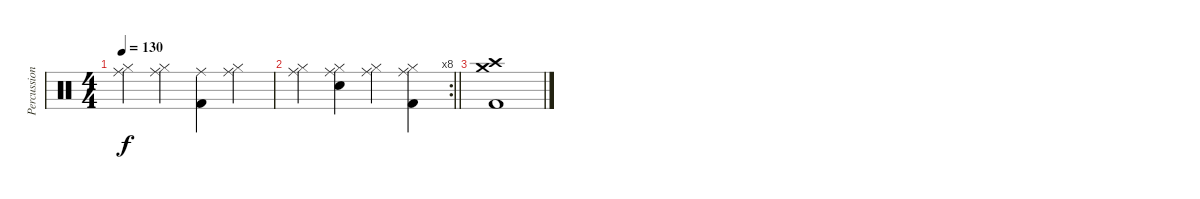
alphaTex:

\track ("Percussion" "Percussion") {instrument percussion}
\staff {score}
\articulation defaults
\ts (4 4)
\tempo 130
\clef neutral
\ks c
("Ride (middle)" "Hi-Hat (closed)").4{dy f} ("Ride (middle)" "Hi-Hat (closed)").4 ("Ride (middle)" "Kick (hit) 2").4 ("Ride (middle)" "Hi-Hat (closed)").4 |
\rc 8
\barLineRight lightlight
("Ride (middle)" "Hi-Hat (closed)").4 ("Ride (middle)" "Hi-Hat (closed)" "Electric Snare (hit)").4 ("Ride (middle)" "Hi-Hat (closed)").4 ("Ride (middle)" "Hi-Hat (closed)" "Kick (hit) 2").4 |
("Crash high (hit)" "Crash medium (hit)" "Kick (hit) 2").1
